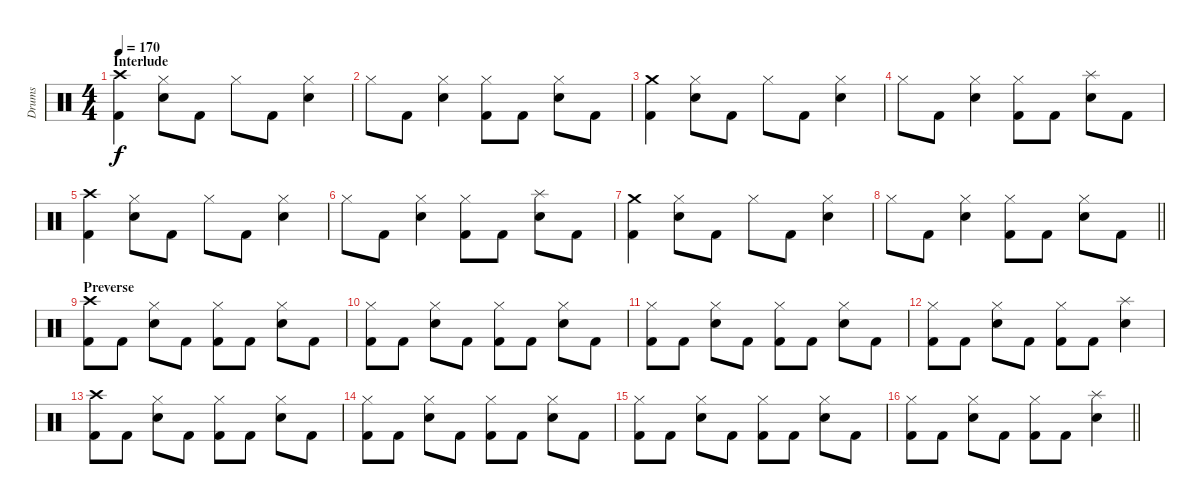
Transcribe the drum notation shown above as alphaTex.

\track ("Drums" "Drums") {instrument percussion}
\staff {score}
\articulation defaults
\ts (4 4)
\section ("" "Interlude")
\tempo 170
\clef neutral
\ks c
("Kick (hit) 2" "Crash high (hit)").4{dy f} ("Hi-Hat (closed)" "Electric Snare (hit)").8 "Kick (hit) 2".8 "Hi-Hat (closed)".8 "Kick (hit) 2".8 ("Hi-Hat (closed)" "Electric Snare (hit)").4 |
"Hi-Hat (closed)".8 "Kick (hit) 2".8 ("Hi-Hat (closed)" "Electric Snare (hit)").4 ("Kick (hit) 2" "Hi-Hat (closed)").8 "Kick (hit) 2".8 ("Hi-Hat (closed)" "Electric Snare (hit)").8 "Kick (hit) 2".8 |
("Kick (hit) 2" "Crash medium (hit)").4 ("Hi-Hat (closed)" "Electric Snare (hit)").8 "Kick (hit) 2".8 "Hi-Hat (closed)".8 "Kick (hit) 2".8 ("Hi-Hat (closed)" "Electric Snare (hit)").4 |
"Hi-Hat (closed)".8 "Kick (hit) 2".8 ("Hi-Hat (closed)" "Electric Snare (hit)").4 ("Kick (hit) 2" "Hi-Hat (closed)").8 "Kick (hit) 2".8 ("Splash (hit)" "Electric Snare (hit)").8 "Kick (hit) 2".8 |
("Kick (hit) 2" "Crash high (hit)").4 ("Hi-Hat (closed)" "Electric Snare (hit)").8 "Kick (hit) 2".8 "Hi-Hat (closed)".8 "Kick (hit) 2".8 ("Hi-Hat (closed)" "Electric Snare (hit)").4 |
"Hi-Hat (closed)".8 "Kick (hit) 2".8 ("Hi-Hat (closed)" "Electric Snare (hit)").4 ("Kick (hit) 2" "Hi-Hat (closed)").8 "Kick (hit) 2".8 ("Splash (hit)" "Electric Snare (hit)").8 "Kick (hit) 2".8 |
("Kick (hit) 2" "Crash medium (hit)").4 ("Hi-Hat (closed)" "Electric Snare (hit)").8 "Kick (hit) 2".8 "Hi-Hat (closed)".8 "Kick (hit) 2".8 ("Hi-Hat (closed)" "Electric Snare (hit)").4 |
\barLineRight lightlight "Hi-Hat (closed)".8 "Kick (hit) 2".8
("Hi-Hat (closed)" "Electric Snare (hit)").4 ("Kick (hit) 2" "Hi-Hat (closed)").8 "Kick (hit) 2".8 ("Hi-Hat (closed)" "Electric Snare (hit)").8 "Kick (hit) 2".8 |
\section ("" "Preverse")
("Kick (hit) 2" "Crash high (hit)").8 "Kick (hit) 2".8 ("Hi-Hat (closed)" "Electric Snare (hit)").8 "Kick (hit) 2".8 ("Kick (hit) 2" "Hi-Hat (closed)").8 "Kick (hit) 2".8 ("Hi-Hat (closed)" "Electric Snare (hit)").8 "Kick (hit) 2".8 |
("Kick (hit) 2" "Hi-Hat (closed)").8 "Kick (hit) 2".8 ("Hi-Hat (closed)" "Electric Snare (hit)").8 "Kick (hit) 2".8 ("Kick (hit) 2" "Hi-Hat (closed)").8 "Kick (hit) 2".8 ("Hi-Hat (closed)" "Electric Snare (hit)").8 "Kick (hit) 2".8 |
("Kick (hit) 2" "Hi-Hat (closed)").8 "Kick (hit) 2".8 ("Hi-Hat (closed)" "Electric Snare (hit)").8 "Kick (hit) 2".8 ("Kick (hit) 2" "Hi-Hat (closed)").8 "Kick (hit) 2".8 ("Hi-Hat (closed)" "Electric Snare (hit)").8 "Kick (hit) 2".8 |
("Kick (hit) 2" "Hi-Hat (closed)").8 "Kick (hit) 2".8 ("Hi-Hat (closed)" "Electric Snare (hit)").8 "Kick (hit) 2".8 ("Kick (hit) 2" "Hi-Hat (closed)").8 "Kick (hit) 2".8 ("Splash (hit)" "Electric Snare (hit)").4 |
("Kick (hit) 2" "Crash high (hit)").8 "Kick (hit) 2".8 ("Hi-Hat (closed)" "Electric Snare (hit)").8 "Kick (hit) 2".8 ("Kick (hit) 2" "Hi-Hat (closed)").8 "Kick (hit) 2".8 ("Hi-Hat (closed)" "Electric Snare (hit)").8 "Kick (hit) 2".8 |
("Kick (hit) 2" "Hi-Hat (closed)").8 "Kick (hit) 2".8 ("Hi-Hat (closed)" "Electric Snare (hit)").8 "Kick (hit) 2".8 ("Kick (hit) 2" "Hi-Hat (closed)").8 "Kick (hit) 2".8 ("Hi-Hat (closed)" "Electric Snare (hit)").8 "Kick (hit) 2".8 |
("Kick (hit) 2" "Hi-Hat (closed)").8 "Kick (hit) 2".8 ("Hi-Hat (closed)" "Electric Snare (hit)").8 "Kick (hit) 2".8 ("Kick (hit) 2" "Hi-Hat (closed)").8 "Kick (hit) 2".8 ("Hi-Hat (closed)" "Electric Snare (hit)").8 "Kick (hit) 2".8 |
\barLineRight lightlight
("Kick (hit) 2" "Hi-Hat (closed)").8 "Kick (hit) 2".8 ("Hi-Hat (closed)" "Electric Snare (hit)").8 "Kick (hit) 2".8 ("Kick (hit) 2" "Hi-Hat (closed)").8 "Kick (hit) 2".8 ("Splash (hit)" "Electric Snare (hit)").4
